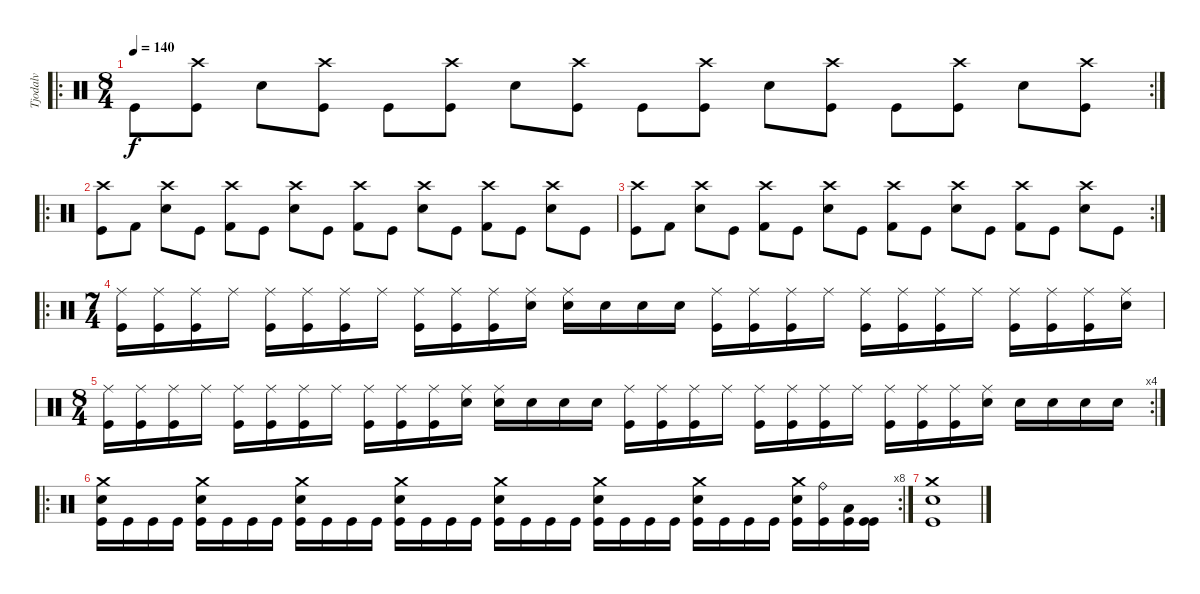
\track ("Tjodalv" "Tjodalv") {instrument percussion}
\staff {score}
\articulation defaults
\ro
\rc 2
\ts (8 4)
\tempo 140
\clef neutral
\ks c "Kick (hit)".8{dy f}
("Crash high (hit)" "Kick (hit)").8 "Electric Snare (hit)".8 ("Crash high (hit)" "Kick (hit)").8 "Kick (hit)".8 ("Crash high (hit)" "Kick (hit)").8 "Electric Snare (hit)".8 ("Crash high (hit)" "Kick (hit)").8 "Kick (hit)".8 ("Crash high (hit)" "Kick (hit)").8 "Electric Snare (hit)".8 ("Crash high (hit)" "Kick (hit)").8 "Kick (hit)".8 ("Crash high (hit)" "Kick (hit)").8 "Electric Snare (hit)".8 ("Crash high (hit)" "Kick (hit)").8 |
\ro
("Crash high (hit)" "Kick (hit)").8 "Kick (hit) 2".8 ("Crash high (hit)" "Electric Snare (hit)").8 "Kick (hit)".8 ("Crash high (hit)" "Kick (hit) 2").8 "Kick (hit)".8 ("Crash high (hit)" "Electric Snare (hit)").8 "Kick (hit)".8 ("Crash high (hit)" "Kick (hit) 2").8 "Kick (hit)".8 ("Crash high (hit)" "Electric Snare (hit)").8 "Kick (hit)".8 ("Crash high (hit)" "Kick (hit) 2").8 "Kick (hit)".8 ("Crash high (hit)" "Electric Snare (hit)").8 "Kick (hit)".8 |
\rc 2
("Crash high (hit)" "Kick (hit)").8 "Kick (hit) 2".8 ("Crash high (hit)" "Electric Snare (hit)").8 "Kick (hit)".8 ("Crash high (hit)" "Kick (hit) 2").8 "Kick (hit)".8 ("Crash high (hit)" "Electric Snare (hit)").8 "Kick (hit)".8 ("Crash high (hit)" "Kick (hit) 2").8 "Kick (hit)".8 ("Crash high (hit)" "Electric Snare (hit)").8 "Kick (hit)".8 ("Crash high (hit)" "Kick (hit) 2").8 "Kick (hit)".8 ("Crash high (hit)" "Electric Snare (hit)").8 "Kick (hit)".8 |
\ro
\ts (7 4)
("Ride (middle)" "Kick (hit)").16 ("Ride (middle)" "Kick (hit)").16 ("Ride (middle)" "Kick (hit)").16 "Ride (middle)".16 ("Ride (middle)" "Kick (hit)").16 ("Ride (middle)" "Kick (hit)").16 ("Ride (middle)" "Kick (hit)").16 "Ride (middle)".16 ("Ride (middle)" "Kick (hit)").16 ("Ride (middle)" "Kick (hit)").16 ("Ride (middle)" "Kick (hit)").16 ("Ride (middle)" "Snare (hit) 2").16 ("Ride (middle)" "Snare (hit) 2").16 "Snare (hit) 2".16 "Snare (hit) 2".16 "Snare (hit) 2".16 ("Ride (middle)" "Kick (hit)").16 ("Ride (middle)" "Kick (hit)").16 ("Ride (middle)" "Kick (hit)").16 "Ride (middle)".16 ("Ride (middle)" "Kick (hit)").16 ("Ride (middle)" "Kick (hit)").16 ("Ride (middle)" "Kick (hit)").16 "Ride (middle)".16 ("Ride (middle)" "Kick (hit)").16 ("Ride (middle)" "Kick (hit)").16 ("Ride (middle)" "Kick (hit)").16 ("Ride (middle)" "Snare (hit) 2").16 |
\rc 4
\ts (8 4)
("Ride (middle)" "Kick (hit)").16 ("Ride (middle)" "Kick (hit)").16 ("Ride (middle)" "Kick (hit)").16 "Ride (middle)".16 ("Ride (middle)" "Kick (hit)").16 ("Ride (middle)" "Kick (hit)").16 ("Ride (middle)" "Kick (hit)").16 "Ride (middle)".16 ("Ride (middle)" "Kick (hit)").16 ("Ride (middle)" "Kick (hit)").16 ("Ride (middle)" "Kick (hit)").16 ("Ride (middle)" "Snare (hit) 2").16 ("Ride (middle)" "Snare (hit) 2").16 "Snare (hit) 2".16 "Snare (hit) 2".16 "Snare (hit) 2".16 ("Ride (middle)" "Kick (hit)").16 ("Ride (middle)" "Kick (hit)").16 ("Ride (middle)" "Kick (hit)").16 "Ride (middle)".16 ("Ride (middle)" "Kick (hit)").16 ("Ride (middle)" "Kick (hit)").16 ("Ride (middle)" "Kick (hit)").16 "Ride (middle)".16 ("Ride (middle)" "Kick (hit)").16 ("Ride (middle)" "Kick (hit)").16 ("Ride (middle)" "Kick (hit)").16 ("Ride (middle)" "Snare (hit) 2").16 "Snare (hit) 2".16 "Snare (hit) 2".16 "Snare (hit) 2".16 "Snare (hit) 2".16 |
\ro
\rc 8
("Crash medium (hit)" "Electric Snare (hit)" "Kick (hit)").16 "Kick (hit)".16 "Kick (hit)".16 "Kick (hit)".16 ("Crash medium (hit)" "Electric Snare (hit)" "Kick (hit)").16 "Kick (hit)".16 "Kick (hit)".16 "Kick (hit)".16 ("Crash medium (hit)" "Electric Snare (hit)" "Kick (hit)").16 "Kick (hit)".16 "Kick (hit)".16 "Kick (hit)".16 ("Crash medium (hit)" "Electric Snare (hit)" "Kick (hit)").16 "Kick (hit)".16 "Kick (hit)".16 "Kick (hit)".16 ("Crash medium (hit)" "Electric Snare (hit)" "Kick (hit)").16 "Kick (hit)".16 "Kick (hit)".16 "Kick (hit)".16 ("Crash medium (hit)" "Electric Snare (hit)" "Kick (hit)").16 "Kick (hit)".16 "Kick (hit)".16 "Kick (hit)".16 ("Crash medium (hit)" "Electric Snare (hit)" "Kick (hit)").16 "Kick (hit)".16 "Kick (hit)".16 "Kick (hit)".16 ("Crash medium (hit)" "Electric Snare (hit)" "Kick (hit)").16 ("Ride (bell)" "Kick (hit)").16 ("Low Tom (hit)" "Kick (hit)").16 ("Kick (hit)" "Kick (hit)").16 |
("Crash medium (hit)" "Electric Snare (hit)" "Kick (hit)").1
